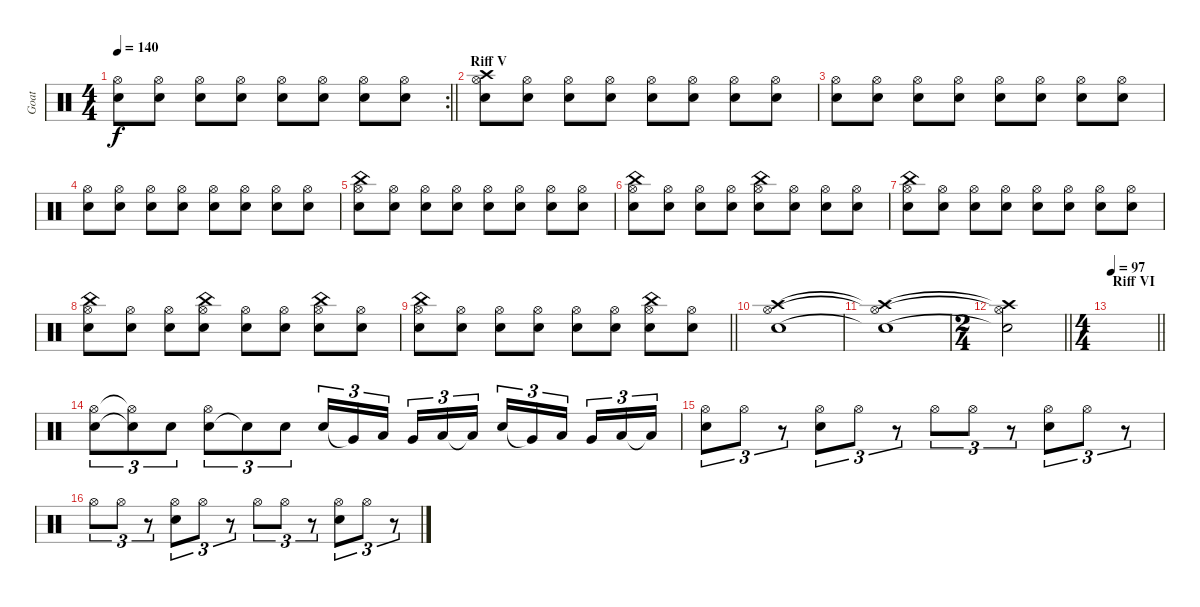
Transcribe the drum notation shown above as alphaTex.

\track ("Goat" "Goat") {instrument percussion}
\staff {score}
\articulation defaults
\rc 2
\ts (4 4)
\tempo 140
\clef neutral
\barLineRight lightlight
\ks c
("Hi-Hat (open)" "Snare (hit) 2").8{dy f} ("Hi-Hat (open)" "Snare (hit) 2").8 ("Hi-Hat (open)" "Snare (hit) 2").8 ("Hi-Hat (open)" "Snare (hit) 2").8 ("Hi-Hat (open)" "Snare (hit) 2").8 ("Hi-Hat (open)" "Snare (hit) 2").8 ("Hi-Hat (open)" "Snare (hit) 2").8 ("Hi-Hat (open)" "Snare (hit) 2").8 |
\section ("" "Riff V")
("Crash high (hit)" "Hi-Hat (open)" "Snare (hit) 2").8 ("Hi-Hat (open)" "Snare (hit) 2").8 ("Hi-Hat (open)" "Snare (hit) 2").8 ("Hi-Hat (open)" "Snare (hit) 2").8 ("Hi-Hat (open)" "Snare (hit) 2").8 ("Hi-Hat (open)" "Snare (hit) 2").8 ("Hi-Hat (open)" "Snare (hit) 2").8 ("Hi-Hat (open)" "Snare (hit) 2").8 |
("Hi-Hat (open)" "Snare (hit) 2").8 ("Hi-Hat (open)" "Snare (hit) 2").8 ("Hi-Hat (open)" "Snare (hit) 2").8 ("Hi-Hat (open)" "Snare (hit) 2").8 ("Hi-Hat (open)" "Snare (hit) 2").8 ("Hi-Hat (open)" "Snare (hit) 2").8 ("Hi-Hat (open)" "Snare (hit) 2").8 ("Hi-Hat (open)" "Snare (hit) 2").8 |
("Hi-Hat (open)" "Snare (hit) 2").8 ("Hi-Hat (open)" "Snare (hit) 2").8 ("Hi-Hat (open)" "Snare (hit) 2").8 ("Hi-Hat (open)" "Snare (hit) 2").8 ("Hi-Hat (open)" "Snare (hit) 2").8 ("Hi-Hat (open)" "Snare (hit) 2").8 ("Hi-Hat (open)" "Snare (hit) 2").8 ("Hi-Hat (open)" "Snare (hit) 2").8 |
("China (hit)" "Hi-Hat (open)" "Snare (hit) 2").8 ("Hi-Hat (open)" "Snare (hit) 2").8 ("Hi-Hat (open)" "Snare (hit) 2").8 ("Hi-Hat (open)" "Snare (hit) 2").8 ("Hi-Hat (open)" "Snare (hit) 2").8 ("Hi-Hat (open)" "Snare (hit) 2").8 ("Hi-Hat (open)" "Snare (hit) 2").8 ("Hi-Hat (open)" "Snare (hit) 2").8 |
("China (hit)" "Hi-Hat (open)" "Snare (hit) 2").8 ("Hi-Hat (open)" "Snare (hit) 2").8 ("Hi-Hat (open)" "Snare (hit) 2").8 ("Hi-Hat (open)" "Snare (hit) 2").8 ("China (hit)" "Hi-Hat (open)" "Snare (hit) 2").8 ("Hi-Hat (open)" "Snare (hit) 2").8 ("Hi-Hat (open)" "Snare (hit) 2").8 ("Hi-Hat (open)" "Snare (hit) 2").8 |
("China (hit)" "Hi-Hat (open)" "Snare (hit) 2").8 ("Hi-Hat (open)" "Snare (hit) 2").8 ("Hi-Hat (open)" "Snare (hit) 2").8 ("Hi-Hat (open)" "Snare (hit) 2").8 ("Hi-Hat (open)" "Snare (hit) 2").8 ("Hi-Hat (open)" "Snare (hit) 2").8 ("Hi-Hat (open)" "Snare (hit) 2").8 ("Hi-Hat (open)" "Snare (hit) 2").8 |
("China (hit)" "Hi-Hat (open)" "Snare (hit) 2").8 ("Hi-Hat (open)" "Snare (hit) 2").8 ("Hi-Hat (open)" "Snare (hit) 2").8 ("China (hit)" "Hi-Hat (open)" "Snare (hit) 2").8 ("Hi-Hat (open)" "Snare (hit) 2").8 ("Hi-Hat (open)" "Snare (hit) 2").8 ("China (hit)" "Hi-Hat (open)" "Snare (hit) 2").8 ("Hi-Hat (open)" "Snare (hit) 2").8 |
\barLineRight lightlight
("China (hit)" "Hi-Hat (open)" "Snare (hit) 2").8 ("Hi-Hat (open)" "Snare (hit) 2").8 ("Hi-Hat (open)" "Snare (hit) 2").8 ("Hi-Hat (open)" "Snare (hit) 2").8 ("Hi-Hat (open)" "Snare (hit) 2").8 ("Hi-Hat (open)" "Snare (hit) 2").8 ("China (hit)" "Hi-Hat (open)" "Snare (hit) 2").8 ("Hi-Hat (open)" "Snare (hit) 2").8 |
("Crash high (hit)" "Hi-Hat (open)" "Snare (hit) 2").1 |
("Crash high (hit)"{t} "Hi-Hat (open)"{t} "Snare (hit) 2"{t}).1 |
\ts (2 4)
\barLineRight lightlight
("Crash high (hit)"{t} "Hi-Hat (open)"{t} "Snare (hit) 2"{t}).2 |
\ts (4 4)
\section ("" "Riff VI")
\tempo 97
\barLineRight lightlight
|
("Snare (hit) 2" "Hi-Hat (open)").8{tu (3 2)} ("Snare (hit) 2"{t} "Hi-Hat (open)"{t}).8{tu (3 2)} "Snare (hit) 2".8{tu (3 2)} ("Electric Snare (hit)" "Hi-Hat (open)").8{tu (3 2)} "Snare (hit) 2"{t}.8{tu (3 2)} "Snare (hit) 2".8{tu (3 2)} "Electric Snare (hit)".16{tu (3 2)} "Very Low Tom (hit)"{t}.16{tu (3 2)} "Low Floor Tom (hit)".16{tu (3 2) beam splitsecondary} "Very Low Tom (hit)".16{tu (3 2)} "Low Tom (hit)".16{tu (3 2)} "Low Tom (hit)"{t}.16{tu (3 2)} "Snare (hit) 2".16{tu (3 2)} "Very Low Tom (hit)"{t}.16{tu (3 2)} "Low Floor Tom (hit)".16{tu (3 2) beam splitsecondary} "Very Low Tom (hit)".16{tu (3 2)} "Low Tom (hit)".16{tu (3 2)} "Low Tom (hit)"{t}.16{tu (3 2)} |
("Hi-Hat (open)" "Snare (hit) 2").8{tu (3 2)} "Hi-Hat (open)".8{tu (3 2)} r.8{tu (3 2)} ("Hi-Hat (open)" "Snare (hit) 2").8{tu (3 2)} "Hi-Hat (open)".8{tu (3 2)} r.8{tu (3 2)} "Hi-Hat (open)".8{tu (3 2)} "Hi-Hat (open)".8{tu (3 2)} r.8{tu (3 2)} ("Hi-Hat (open)" "Snare (hit) 2").8{tu (3 2)} "Hi-Hat (open)".8{tu (3 2)} r.8{tu (3 2)} |
"Hi-Hat (open)".8{tu (3 2)} "Hi-Hat (open)".8{tu (3 2)} r.8{tu (3 2)} ("Hi-Hat (open)" "Snare (hit) 2").8{tu (3 2)} "Hi-Hat (open)".8{tu (3 2)} r.8{tu (3 2)} "Hi-Hat (open)".8{tu (3 2)} "Hi-Hat (open)".8{tu (3 2)} r.8{tu (3 2)} ("Hi-Hat (open)" "Snare (hit) 2").8{tu (3 2)} "Hi-Hat (open)".8{tu (3 2)} r.8{tu (3 2)}
